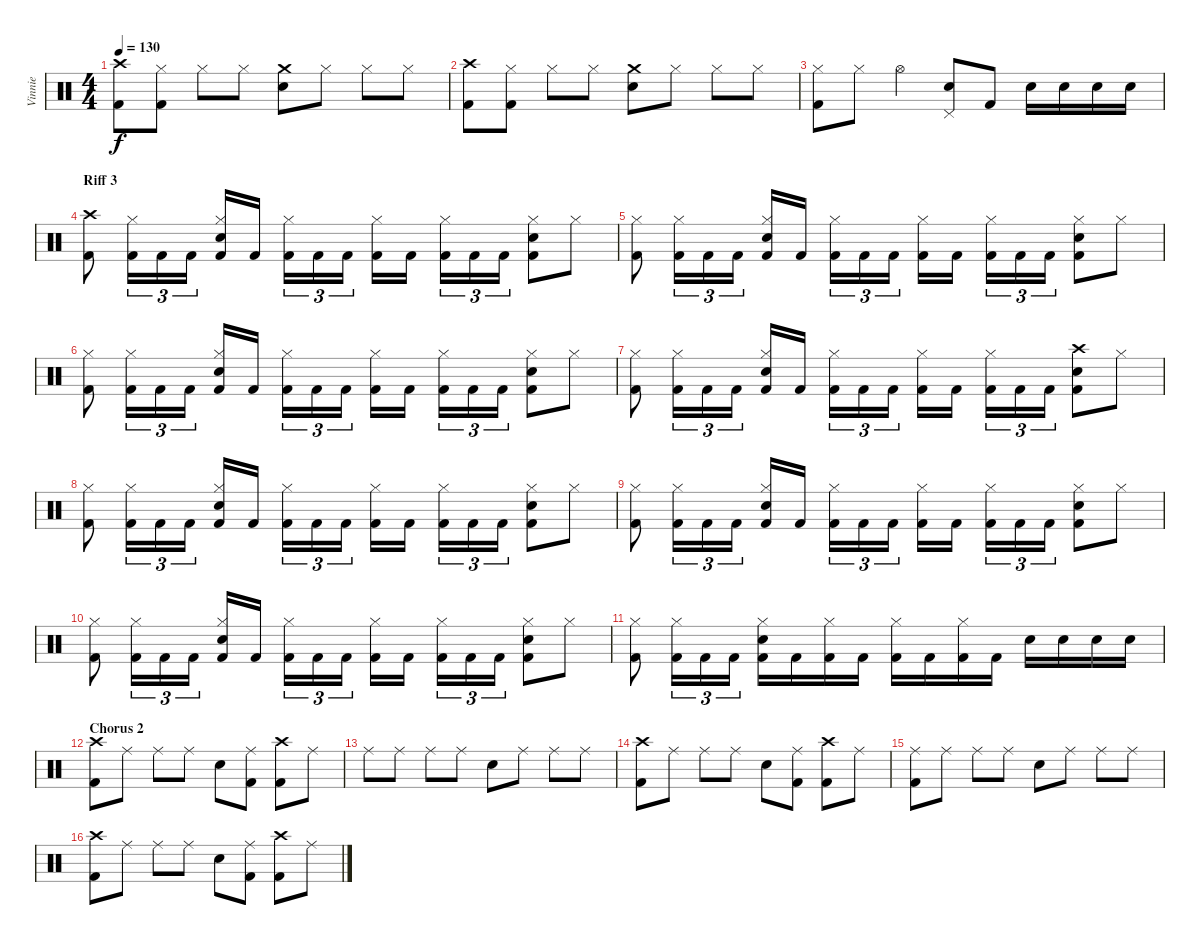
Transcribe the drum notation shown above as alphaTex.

\track ("Vinnie" "Vinnie") {instrument percussion}
\staff {score}
\articulation defaults
\ts (4 4)
\tempo 130
\clef neutral
\ks c
("Crash high (hit)" "Kick (hit) 2").8{dy f} ("Hi-Hat (closed)" "Kick (hit) 2").8 "Hi-Hat (closed)".8 "Hi-Hat (closed)".8 ("Crash medium (hit)" "Electric Snare (hit)").8 "Hi-Hat (closed)".8 "Hi-Hat (closed)".8 "Hi-Hat (closed)".8 |
("Crash high (hit)" "Kick (hit) 2").8 ("Hi-Hat (closed)" "Kick (hit) 2").8 "Hi-Hat (closed)".8 "Hi-Hat (closed)".8 ("Crash medium (hit)" "Electric Snare (hit)").8 "Hi-Hat (closed)".8 "Hi-Hat (closed)".8 "Hi-Hat (closed)".8 |
("Hi-Hat (closed)" "Kick (hit) 2").8 "Hi-Hat (closed)".8 "Hi-Hat (open)".4 ("Pedal Hi-Hat (hit)" "Electric Snare (hit)").8 "Kick (hit) 2".8 "Electric Snare (hit)".16 "Electric Snare (hit)".16 "Electric Snare (hit)".16 "Electric Snare (hit)".16 |
\section ("" "Riff 3")
("Crash high (hit)" "Kick (hit) 2").8 ("Hi-Hat (closed)" "Kick (hit) 2").16{tu (3 2)} "Kick (hit) 2".16{tu (3 2)} "Kick (hit) 2".16{tu (3 2)} ("Hi-Hat (closed)" "Electric Snare (hit)" "Kick (hit) 2").16 "Kick (hit) 2".16 ("Hi-Hat (closed)" "Kick (hit) 2").16{tu (3 2)} "Kick (hit) 2".16{tu (3 2)} "Kick (hit) 2".16{tu (3 2)} ("Hi-Hat (closed)" "Kick (hit) 2").16 "Kick (hit) 2".16 ("Hi-Hat (closed)" "Kick (hit) 2").16{tu (3 2)} "Kick (hit) 2".16{tu (3 2)} "Kick (hit) 2".16{tu (3 2)} ("Hi-Hat (closed)" "Electric Snare (hit)" "Kick (hit) 2").8 "Hi-Hat (closed)".8 |
("Hi-Hat (closed)" "Kick (hit) 2").8 ("Hi-Hat (closed)" "Kick (hit) 2").16{tu (3 2)} "Kick (hit) 2".16{tu (3 2)} "Kick (hit) 2".16{tu (3 2)} ("Hi-Hat (closed)" "Electric Snare (hit)" "Kick (hit) 2").16 "Kick (hit) 2".16 ("Hi-Hat (closed)" "Kick (hit) 2").16{tu (3 2)} "Kick (hit) 2".16{tu (3 2)} "Kick (hit) 2".16{tu (3 2)} ("Hi-Hat (closed)" "Kick (hit) 2").16 "Kick (hit) 2".16 ("Hi-Hat (closed)" "Kick (hit) 2").16{tu (3 2)} "Kick (hit) 2".16{tu (3 2)} "Kick (hit) 2".16{tu (3 2)} ("Hi-Hat (closed)" "Electric Snare (hit)" "Kick (hit) 2").8 "Hi-Hat (closed)".8 |
("Hi-Hat (closed)" "Kick (hit) 2").8 ("Hi-Hat (closed)" "Kick (hit) 2").16{tu (3 2)} "Kick (hit) 2".16{tu (3 2)} "Kick (hit) 2".16{tu (3 2)} ("Hi-Hat (closed)" "Electric Snare (hit)" "Kick (hit) 2").16 "Kick (hit) 2".16 ("Hi-Hat (closed)" "Kick (hit) 2").16{tu (3 2)} "Kick (hit) 2".16{tu (3 2)} "Kick (hit) 2".16{tu (3 2)} ("Hi-Hat (closed)" "Kick (hit) 2").16 "Kick (hit) 2".16 ("Hi-Hat (closed)" "Kick (hit) 2").16{tu (3 2)} "Kick (hit) 2".16{tu (3 2)} "Kick (hit) 2".16{tu (3 2)} ("Hi-Hat (closed)" "Electric Snare (hit)" "Kick (hit) 2").8 "Hi-Hat (closed)".8 |
("Hi-Hat (closed)" "Kick (hit) 2").8 ("Hi-Hat (closed)" "Kick (hit) 2").16{tu (3 2)} "Kick (hit) 2".16{tu (3 2)} "Kick (hit) 2".16{tu (3 2)} ("Hi-Hat (closed)" "Electric Snare (hit)" "Kick (hit) 2").16 "Kick (hit) 2".16 ("Hi-Hat (closed)" "Kick (hit) 2").16{tu (3 2)} "Kick (hit) 2".16{tu (3 2)} "Kick (hit) 2".16{tu (3 2)} ("Hi-Hat (closed)" "Kick (hit) 2").16 "Kick (hit) 2".16 ("Hi-Hat (closed)" "Kick (hit) 2").16{tu (3 2)} "Kick (hit) 2".16{tu (3 2)} "Kick (hit) 2".16{tu (3 2)} ("Crash high (hit)" "Electric Snare (hit)" "Kick (hit) 2").8 "Hi-Hat (closed)".8 |
("Hi-Hat (closed)" "Kick (hit) 2").8 ("Hi-Hat (closed)" "Kick (hit) 2").16{tu (3 2)} "Kick (hit) 2".16{tu (3 2)} "Kick (hit) 2".16{tu (3 2)} ("Hi-Hat (closed)" "Electric Snare (hit)" "Kick (hit) 2").16 "Kick (hit) 2".16 ("Hi-Hat (closed)" "Kick (hit) 2").16{tu (3 2)} "Kick (hit) 2".16{tu (3 2)} "Kick (hit) 2".16{tu (3 2)} ("Hi-Hat (closed)" "Kick (hit) 2").16 "Kick (hit) 2".16 ("Hi-Hat (closed)" "Kick (hit) 2").16{tu (3 2)} "Kick (hit) 2".16{tu (3 2)} "Kick (hit) 2".16{tu (3 2)} ("Hi-Hat (closed)" "Electric Snare (hit)" "Kick (hit) 2").8 "Hi-Hat (closed)".8 |
("Hi-Hat (closed)" "Kick (hit) 2").8 ("Hi-Hat (closed)" "Kick (hit) 2").16{tu (3 2)} "Kick (hit) 2".16{tu (3 2)} "Kick (hit) 2".16{tu (3 2)} ("Hi-Hat (closed)" "Electric Snare (hit)" "Kick (hit) 2").16 "Kick (hit) 2".16 ("Hi-Hat (closed)" "Kick (hit) 2").16{tu (3 2)} "Kick (hit) 2".16{tu (3 2)} "Kick (hit) 2".16{tu (3 2)} ("Hi-Hat (closed)" "Kick (hit) 2").16 "Kick (hit) 2".16 ("Hi-Hat (closed)" "Kick (hit) 2").16{tu (3 2)} "Kick (hit) 2".16{tu (3 2)} "Kick (hit) 2".16{tu (3 2)} ("Hi-Hat (closed)" "Electric Snare (hit)" "Kick (hit) 2").8 "Hi-Hat (closed)".8 |
("Hi-Hat (closed)" "Kick (hit) 2").8 ("Hi-Hat (closed)" "Kick (hit) 2").16{tu (3 2)} "Kick (hit) 2".16{tu (3 2)} "Kick (hit) 2".16{tu (3 2)} ("Hi-Hat (closed)" "Electric Snare (hit)" "Kick (hit) 2").16 "Kick (hit) 2".16 ("Hi-Hat (closed)" "Kick (hit) 2").16{tu (3 2)} "Kick (hit) 2".16{tu (3 2)} "Kick (hit) 2".16{tu (3 2)} ("Hi-Hat (closed)" "Kick (hit) 2").16 "Kick (hit) 2".16 ("Hi-Hat (closed)" "Kick (hit) 2").16{tu (3 2)} "Kick (hit) 2".16{tu (3 2)} "Kick (hit) 2".16{tu (3 2)} ("Hi-Hat (closed)" "Electric Snare (hit)" "Kick (hit) 2").8 "Hi-Hat (closed)".8 |
("Hi-Hat (closed)" "Kick (hit) 2").8 ("Hi-Hat (closed)" "Kick (hit) 2").16{tu (3 2)} "Kick (hit) 2".16{tu (3 2)} "Kick (hit) 2".16{tu (3 2)} ("Hi-Hat (closed)" "Electric Snare (hit)" "Kick (hit) 2").16 "Kick (hit) 2".16 ("Hi-Hat (closed)" "Kick (hit) 2").16 "Kick (hit) 2".16 ("Hi-Hat (closed)" "Kick (hit) 2").16 "Kick (hit) 2".16 ("Hi-Hat (closed)" "Kick (hit) 2").16 "Kick (hit) 2".16 "Electric Snare (hit)".16 "Electric Snare (hit)".16 "Electric Snare (hit)".16 "Electric Snare (hit)".16 |
\section ("" "Chorus 2")
("Crash high (hit)" "Kick (hit) 2").8 "Ride (middle)".8 "Ride (middle)".8 "Ride (middle)".8 "Electric Snare (hit)".8 ("Ride (middle)" "Kick (hit) 2").8 ("Crash high (hit)" "Kick (hit) 2").8 "Ride (middle)".8 |
"Ride (middle)".8 "Ride (middle)".8 "Ride (middle)".8 "Ride (middle)".8 "Electric Snare (hit)".8 "Ride (middle)".8 "Ride (middle)".8 "Ride (middle)".8 |
("Crash high (hit)" "Kick (hit) 2").8 "Ride (middle)".8 "Ride (middle)".8 "Ride (middle)".8 "Electric Snare (hit)".8 ("Ride (middle)" "Kick (hit) 2").8 ("Crash high (hit)" "Kick (hit) 2").8 "Ride (middle)".8 |
("Ride (middle)" "Kick (hit) 2").8 "Ride (middle)".8 "Ride (middle)".8 "Ride (middle)".8 "Electric Snare (hit)".8 "Ride (middle)".8 "Ride (middle)".8 "Ride (middle)".8 |
("Crash high (hit)" "Kick (hit) 2").8 "Ride (middle)".8 "Ride (middle)".8 "Ride (middle)".8 "Electric Snare (hit)".8 ("Ride (middle)" "Kick (hit) 2").8 ("Crash high (hit)" "Kick (hit) 2").8 "Ride (middle)".8
